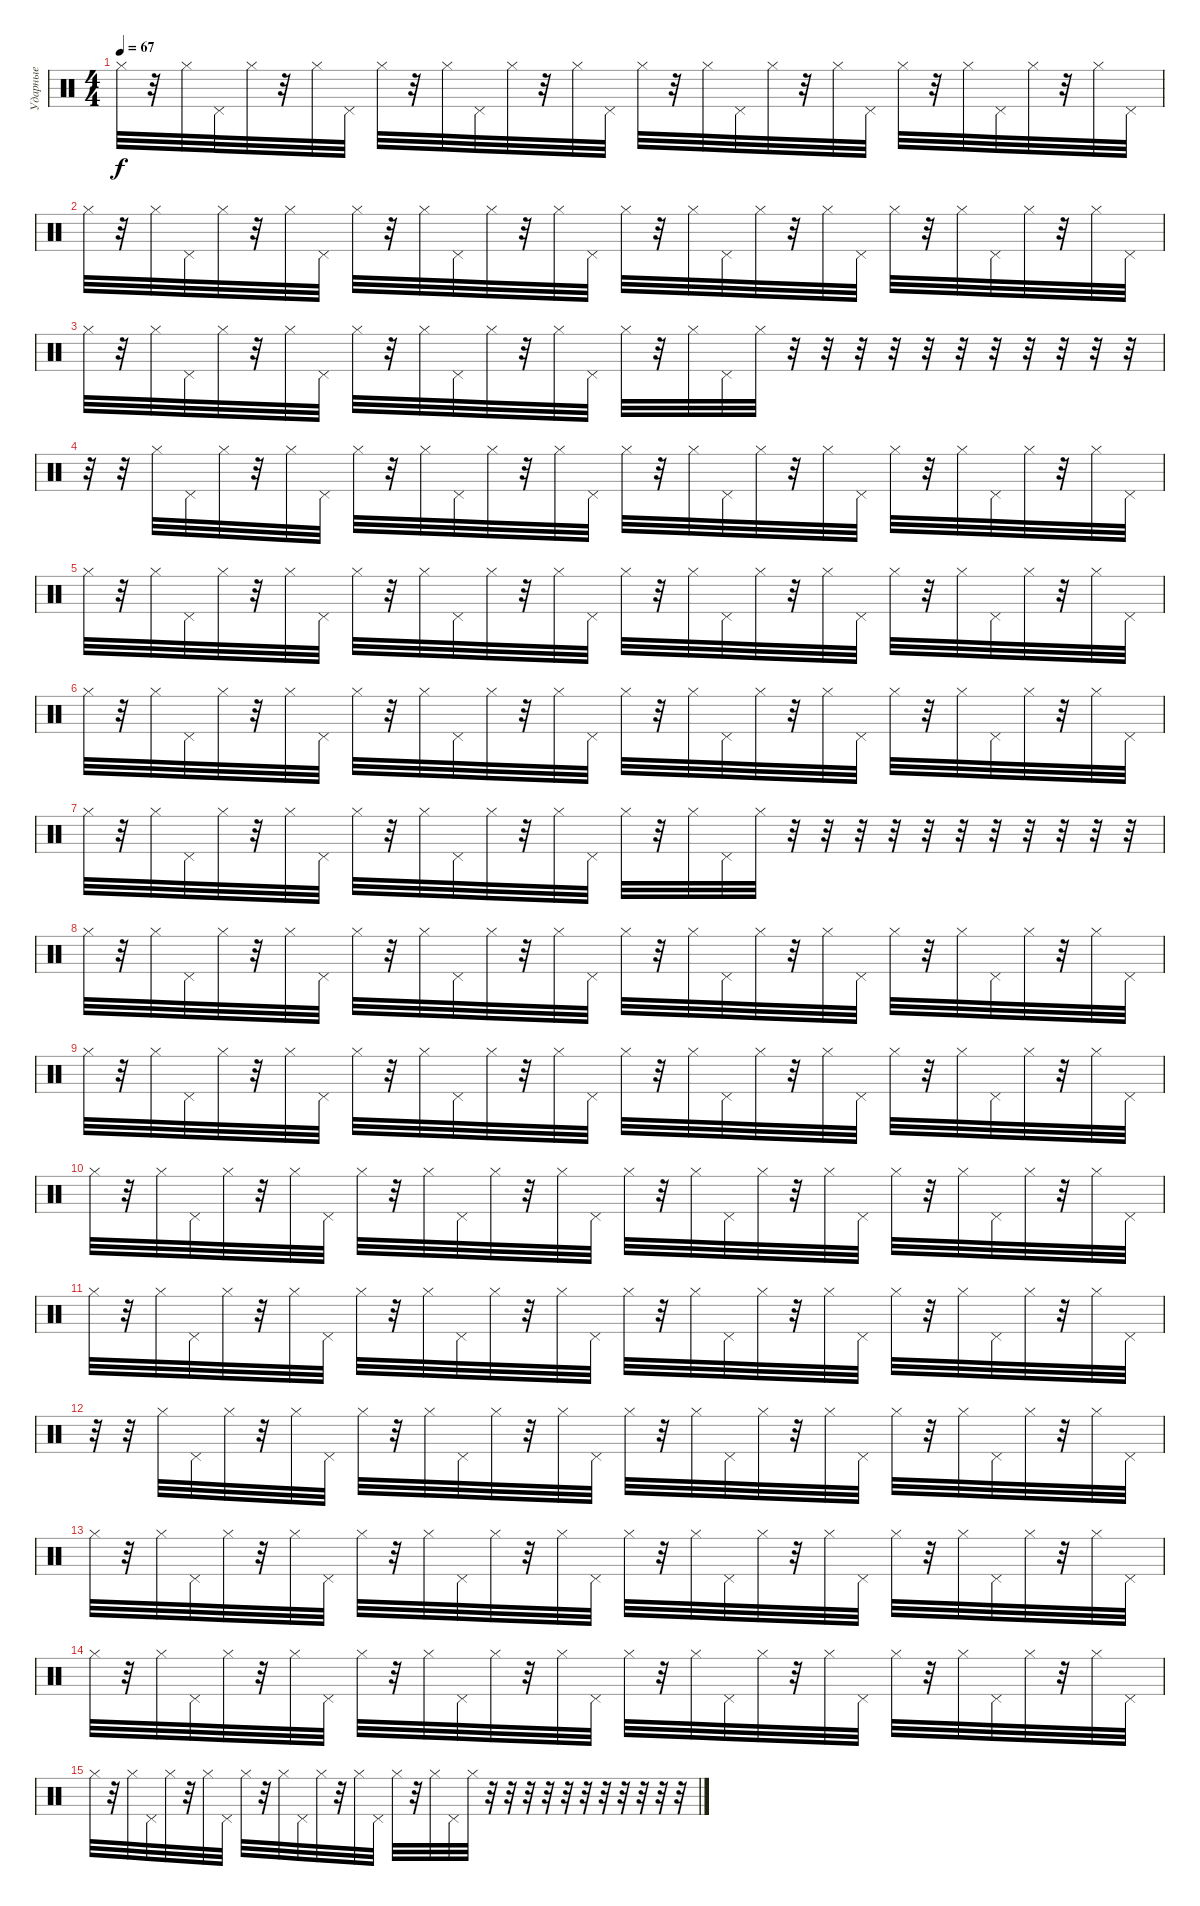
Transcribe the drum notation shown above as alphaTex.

\track ("Ударные" "Ударные") {instrument percussion}
\staff {score}
\articulation defaults
\ts (4 4)
\tempo 67
\clef neutral
\ks c "Hi-Hat (closed)".32{dy f}
r.32 "Hi-Hat (closed)".32 "Pedal Hi-Hat (hit)".32 "Hi-Hat (closed)".32 r.32 "Hi-Hat (closed)".32 "Pedal Hi-Hat (hit)".32 "Hi-Hat (closed)".32 r.32 "Hi-Hat (closed)".32 "Pedal Hi-Hat (hit)".32 "Hi-Hat (closed)".32 r.32 "Hi-Hat (closed)".32 "Pedal Hi-Hat (hit)".32 "Hi-Hat (closed)".32 r.32 "Hi-Hat (closed)".32 "Pedal Hi-Hat (hit)".32 "Hi-Hat (closed)".32 r.32 "Hi-Hat (closed)".32 "Pedal Hi-Hat (hit)".32 "Hi-Hat (closed)".32 r.32 "Hi-Hat (closed)".32 "Pedal Hi-Hat (hit)".32 "Hi-Hat (closed)".32 r.32 "Hi-Hat (closed)".32 "Pedal Hi-Hat (hit)".32 |
"Hi-Hat (closed)".32 r.32 "Hi-Hat (closed)".32 "Pedal Hi-Hat (hit)".32 "Hi-Hat (closed)".32 r.32 "Hi-Hat (closed)".32 "Pedal Hi-Hat (hit)".32 "Hi-Hat (closed)".32 r.32 "Hi-Hat (closed)".32 "Pedal Hi-Hat (hit)".32 "Hi-Hat (closed)".32 r.32 "Hi-Hat (closed)".32 "Pedal Hi-Hat (hit)".32 "Hi-Hat (closed)".32 r.32 "Hi-Hat (closed)".32 "Pedal Hi-Hat (hit)".32 "Hi-Hat (closed)".32 r.32 "Hi-Hat (closed)".32 "Pedal Hi-Hat (hit)".32 "Hi-Hat (closed)".32 r.32 "Hi-Hat (closed)".32 "Pedal Hi-Hat (hit)".32 "Hi-Hat (closed)".32 r.32 "Hi-Hat (closed)".32 "Pedal Hi-Hat (hit)".32 |
"Hi-Hat (closed)".32 r.32 "Hi-Hat (closed)".32 "Pedal Hi-Hat (hit)".32 "Hi-Hat (closed)".32 r.32 "Hi-Hat (closed)".32 "Pedal Hi-Hat (hit)".32 "Hi-Hat (closed)".32 r.32 "Hi-Hat (closed)".32 "Pedal Hi-Hat (hit)".32 "Hi-Hat (closed)".32 r.32 "Hi-Hat (closed)".32 "Pedal Hi-Hat (hit)".32 "Hi-Hat (closed)".32 r.32 "Hi-Hat (closed)".32 "Pedal Hi-Hat (hit)".32 "Hi-Hat (closed)".32 r.32 r.32 r.32 r.32 r.32 r.32 r.32 r.32 r.32 r.32 r.32 |
r.32 r.32 "Hi-Hat (closed)".32 "Pedal Hi-Hat (hit)".32 "Hi-Hat (closed)".32 r.32 "Hi-Hat (closed)".32 "Pedal Hi-Hat (hit)".32 "Hi-Hat (closed)".32 r.32 "Hi-Hat (closed)".32 "Pedal Hi-Hat (hit)".32 "Hi-Hat (closed)".32 r.32 "Hi-Hat (closed)".32 "Pedal Hi-Hat (hit)".32 "Hi-Hat (closed)".32 r.32 "Hi-Hat (closed)".32 "Pedal Hi-Hat (hit)".32 "Hi-Hat (closed)".32 r.32 "Hi-Hat (closed)".32 "Pedal Hi-Hat (hit)".32 "Hi-Hat (closed)".32 r.32 "Hi-Hat (closed)".32 "Pedal Hi-Hat (hit)".32 "Hi-Hat (closed)".32 r.32 "Hi-Hat (closed)".32 "Pedal Hi-Hat (hit)".32 |
"Hi-Hat (closed)".32 r.32 "Hi-Hat (closed)".32 "Pedal Hi-Hat (hit)".32 "Hi-Hat (closed)".32 r.32 "Hi-Hat (closed)".32 "Pedal Hi-Hat (hit)".32 "Hi-Hat (closed)".32 r.32 "Hi-Hat (closed)".32 "Pedal Hi-Hat (hit)".32 "Hi-Hat (closed)".32 r.32 "Hi-Hat (closed)".32 "Pedal Hi-Hat (hit)".32 "Hi-Hat (closed)".32 r.32 "Hi-Hat (closed)".32 "Pedal Hi-Hat (hit)".32 "Hi-Hat (closed)".32 r.32 "Hi-Hat (closed)".32 "Pedal Hi-Hat (hit)".32 "Hi-Hat (closed)".32 r.32 "Hi-Hat (closed)".32 "Pedal Hi-Hat (hit)".32 "Hi-Hat (closed)".32 r.32 "Hi-Hat (closed)".32 "Pedal Hi-Hat (hit)".32 |
"Hi-Hat (closed)".32 r.32 "Hi-Hat (closed)".32 "Pedal Hi-Hat (hit)".32 "Hi-Hat (closed)".32 r.32 "Hi-Hat (closed)".32 "Pedal Hi-Hat (hit)".32 "Hi-Hat (closed)".32 r.32 "Hi-Hat (closed)".32 "Pedal Hi-Hat (hit)".32 "Hi-Hat (closed)".32 r.32 "Hi-Hat (closed)".32 "Pedal Hi-Hat (hit)".32 "Hi-Hat (closed)".32 r.32 "Hi-Hat (closed)".32 "Pedal Hi-Hat (hit)".32 "Hi-Hat (closed)".32 r.32 "Hi-Hat (closed)".32 "Pedal Hi-Hat (hit)".32 "Hi-Hat (closed)".32 r.32 "Hi-Hat (closed)".32 "Pedal Hi-Hat (hit)".32 "Hi-Hat (closed)".32 r.32 "Hi-Hat (closed)".32 "Pedal Hi-Hat (hit)".32 |
"Hi-Hat (closed)".32 r.32 "Hi-Hat (closed)".32 "Pedal Hi-Hat (hit)".32 "Hi-Hat (closed)".32 r.32 "Hi-Hat (closed)".32 "Pedal Hi-Hat (hit)".32 "Hi-Hat (closed)".32 r.32 "Hi-Hat (closed)".32 "Pedal Hi-Hat (hit)".32 "Hi-Hat (closed)".32 r.32 "Hi-Hat (closed)".32 "Pedal Hi-Hat (hit)".32 "Hi-Hat (closed)".32 r.32 "Hi-Hat (closed)".32 "Pedal Hi-Hat (hit)".32 "Hi-Hat (closed)".32 r.32 r.32 r.32 r.32 r.32 r.32 r.32 r.32 r.32 r.32 r.32 |
"Hi-Hat (closed)".32 r.32 "Hi-Hat (closed)".32 "Pedal Hi-Hat (hit)".32 "Hi-Hat (closed)".32 r.32 "Hi-Hat (closed)".32 "Pedal Hi-Hat (hit)".32 "Hi-Hat (closed)".32 r.32 "Hi-Hat (closed)".32 "Pedal Hi-Hat (hit)".32 "Hi-Hat (closed)".32 r.32 "Hi-Hat (closed)".32 "Pedal Hi-Hat (hit)".32 "Hi-Hat (closed)".32 r.32 "Hi-Hat (closed)".32 "Pedal Hi-Hat (hit)".32 "Hi-Hat (closed)".32 r.32 "Hi-Hat (closed)".32 "Pedal Hi-Hat (hit)".32 "Hi-Hat (closed)".32 r.32 "Hi-Hat (closed)".32 "Pedal Hi-Hat (hit)".32 "Hi-Hat (closed)".32 r.32 "Hi-Hat (closed)".32 "Pedal Hi-Hat (hit)".32 |
"Hi-Hat (closed)".32 r.32 "Hi-Hat (closed)".32 "Pedal Hi-Hat (hit)".32 "Hi-Hat (closed)".32 r.32 "Hi-Hat (closed)".32 "Pedal Hi-Hat (hit)".32 "Hi-Hat (closed)".32 r.32 "Hi-Hat (closed)".32 "Pedal Hi-Hat (hit)".32 "Hi-Hat (closed)".32 r.32 "Hi-Hat (closed)".32 "Pedal Hi-Hat (hit)".32 "Hi-Hat (closed)".32 r.32 "Hi-Hat (closed)".32 "Pedal Hi-Hat (hit)".32 "Hi-Hat (closed)".32 r.32 "Hi-Hat (closed)".32 "Pedal Hi-Hat (hit)".32 "Hi-Hat (closed)".32 r.32 "Hi-Hat (closed)".32 "Pedal Hi-Hat (hit)".32 "Hi-Hat (closed)".32 r.32 "Hi-Hat (closed)".32 "Pedal Hi-Hat (hit)".32 |
"Hi-Hat (closed)".32 r.32 "Hi-Hat (closed)".32 "Pedal Hi-Hat (hit)".32 "Hi-Hat (closed)".32 r.32 "Hi-Hat (closed)".32 "Pedal Hi-Hat (hit)".32 "Hi-Hat (closed)".32 r.32 "Hi-Hat (closed)".32 "Pedal Hi-Hat (hit)".32 "Hi-Hat (closed)".32 r.32 "Hi-Hat (closed)".32 "Pedal Hi-Hat (hit)".32 "Hi-Hat (closed)".32 r.32 "Hi-Hat (closed)".32 "Pedal Hi-Hat (hit)".32 "Hi-Hat (closed)".32 r.32 "Hi-Hat (closed)".32 "Pedal Hi-Hat (hit)".32 "Hi-Hat (closed)".32 r.32 "Hi-Hat (closed)".32 "Pedal Hi-Hat (hit)".32 "Hi-Hat (closed)".32 r.32 "Hi-Hat (closed)".32 "Pedal Hi-Hat (hit)".32 |
"Hi-Hat (closed)".32 r.32 "Hi-Hat (closed)".32 "Pedal Hi-Hat (hit)".32 "Hi-Hat (closed)".32 r.32 "Hi-Hat (closed)".32 "Pedal Hi-Hat (hit)".32 "Hi-Hat (closed)".32 r.32 "Hi-Hat (closed)".32 "Pedal Hi-Hat (hit)".32 "Hi-Hat (closed)".32 r.32 "Hi-Hat (closed)".32 "Pedal Hi-Hat (hit)".32 "Hi-Hat (closed)".32 r.32 "Hi-Hat (closed)".32 "Pedal Hi-Hat (hit)".32 "Hi-Hat (closed)".32 r.32 "Hi-Hat (closed)".32 "Pedal Hi-Hat (hit)".32 "Hi-Hat (closed)".32 r.32 "Hi-Hat (closed)".32 "Pedal Hi-Hat (hit)".32 "Hi-Hat (closed)".32 r.32 "Hi-Hat (closed)".32 "Pedal Hi-Hat (hit)".32 |
r.32 r.32 "Hi-Hat (closed)".32 "Pedal Hi-Hat (hit)".32 "Hi-Hat (closed)".32 r.32 "Hi-Hat (closed)".32 "Pedal Hi-Hat (hit)".32 "Hi-Hat (closed)".32 r.32 "Hi-Hat (closed)".32 "Pedal Hi-Hat (hit)".32 "Hi-Hat (closed)".32 r.32 "Hi-Hat (closed)".32 "Pedal Hi-Hat (hit)".32 "Hi-Hat (closed)".32 r.32 "Hi-Hat (closed)".32 "Pedal Hi-Hat (hit)".32 "Hi-Hat (closed)".32 r.32 "Hi-Hat (closed)".32 "Pedal Hi-Hat (hit)".32 "Hi-Hat (closed)".32 r.32 "Hi-Hat (closed)".32 "Pedal Hi-Hat (hit)".32 "Hi-Hat (closed)".32 r.32 "Hi-Hat (closed)".32 "Pedal Hi-Hat (hit)".32 |
"Hi-Hat (closed)".32 r.32 "Hi-Hat (closed)".32 "Pedal Hi-Hat (hit)".32 "Hi-Hat (closed)".32 r.32 "Hi-Hat (closed)".32 "Pedal Hi-Hat (hit)".32 "Hi-Hat (closed)".32 r.32 "Hi-Hat (closed)".32 "Pedal Hi-Hat (hit)".32 "Hi-Hat (closed)".32 r.32 "Hi-Hat (closed)".32 "Pedal Hi-Hat (hit)".32 "Hi-Hat (closed)".32 r.32 "Hi-Hat (closed)".32 "Pedal Hi-Hat (hit)".32 "Hi-Hat (closed)".32 r.32 "Hi-Hat (closed)".32 "Pedal Hi-Hat (hit)".32 "Hi-Hat (closed)".32 r.32 "Hi-Hat (closed)".32 "Pedal Hi-Hat (hit)".32 "Hi-Hat (closed)".32 r.32 "Hi-Hat (closed)".32 "Pedal Hi-Hat (hit)".32 |
"Hi-Hat (closed)".32 r.32 "Hi-Hat (closed)".32 "Pedal Hi-Hat (hit)".32 "Hi-Hat (closed)".32 r.32 "Hi-Hat (closed)".32 "Pedal Hi-Hat (hit)".32 "Hi-Hat (closed)".32 r.32 "Hi-Hat (closed)".32 "Pedal Hi-Hat (hit)".32 "Hi-Hat (closed)".32 r.32 "Hi-Hat (closed)".32 "Pedal Hi-Hat (hit)".32 "Hi-Hat (closed)".32 r.32 "Hi-Hat (closed)".32 "Pedal Hi-Hat (hit)".32 "Hi-Hat (closed)".32 r.32 "Hi-Hat (closed)".32 "Pedal Hi-Hat (hit)".32 "Hi-Hat (closed)".32 r.32 "Hi-Hat (closed)".32 "Pedal Hi-Hat (hit)".32 "Hi-Hat (closed)".32 r.32 "Hi-Hat (closed)".32 "Pedal Hi-Hat (hit)".32 |
"Hi-Hat (closed)".32 r.32 "Hi-Hat (closed)".32 "Pedal Hi-Hat (hit)".32 "Hi-Hat (closed)".32 r.32 "Hi-Hat (closed)".32 "Pedal Hi-Hat (hit)".32 "Hi-Hat (closed)".32 r.32 "Hi-Hat (closed)".32 "Pedal Hi-Hat (hit)".32 "Hi-Hat (closed)".32 r.32 "Hi-Hat (closed)".32 "Pedal Hi-Hat (hit)".32 "Hi-Hat (closed)".32 r.32 "Hi-Hat (closed)".32 "Pedal Hi-Hat (hit)".32 "Hi-Hat (closed)".32 r.32 r.32 r.32 r.32 r.32 r.32 r.32 r.32 r.32 r.32 r.32
